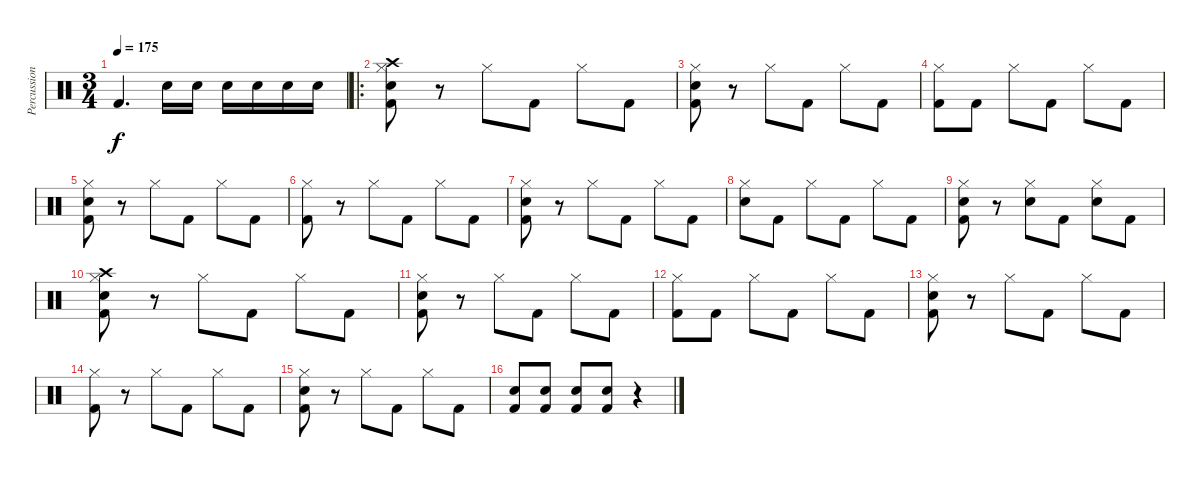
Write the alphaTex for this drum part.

\track ("Percussion" "Percussion") {instrument percussion}
\staff {score}
\articulation defaults
\ts (3 4)
\tempo 175
\clef neutral
\ks c "Kick (hit) 2".4{d dy f} "Electric Snare (hit)".16 "Electric Snare (hit)".16 "Electric Snare (hit)".16 "Electric Snare (hit)".16 "Electric Snare (hit)".16 "Electric Snare (hit)".16
|
\ro
("Hi-Hat (closed)" "Crash high (hit)" "Electric Snare (hit)" "Kick (hit) 2").8 r.8 "Hi-Hat (closed)".8 "Kick (hit) 2".8 "Hi-Hat (closed)".8 "Kick (hit) 2".8 |
("Hi-Hat (closed)" "Electric Snare (hit)" "Kick (hit) 2").8 r.8 "Hi-Hat (closed)".8 "Kick (hit) 2".8 "Hi-Hat (closed)".8 "Kick (hit) 2".8 |
("Hi-Hat (closed)" "Kick (hit) 2").8 "Kick (hit) 2".8 "Hi-Hat (closed)".8 "Kick (hit) 2".8 "Hi-Hat (closed)".8 "Kick (hit) 2".8 |
("Hi-Hat (closed)" "Electric Snare (hit)" "Kick (hit) 2").8 r.8 "Hi-Hat (closed)".8 "Kick (hit) 2".8 "Hi-Hat (closed)".8 "Kick (hit) 2".8 |
("Hi-Hat (closed)" "Kick (hit) 2").8 r.8 "Hi-Hat (closed)".8 "Kick (hit) 2".8 "Hi-Hat (closed)".8 "Kick (hit) 2".8 |
("Hi-Hat (closed)" "Electric Snare (hit)" "Kick (hit) 2").8 r.8 "Hi-Hat (closed)".8 "Kick (hit) 2".8 "Hi-Hat (closed)".8 "Kick (hit) 2".8 |
("Hi-Hat (closed)" "Electric Snare (hit)").8 "Kick (hit) 2".8 "Hi-Hat (closed)".8 "Kick (hit) 2".8 "Hi-Hat (closed)".8 "Kick (hit) 2".8 |
("Hi-Hat (closed)" "Electric Snare (hit)" "Kick (hit) 2").8 r.8 ("Hi-Hat (closed)" "Electric Snare (hit)").8 "Kick (hit) 2".8 ("Hi-Hat (closed)" "Electric Snare (hit)").8 "Kick (hit) 2".8 |
("Hi-Hat (closed)" "Crash high (hit)" "Electric Snare (hit)" "Kick (hit) 2").8 r.8 "Hi-Hat (closed)".8 "Kick (hit) 2".8 "Hi-Hat (closed)".8 "Kick (hit) 2".8 |
("Hi-Hat (closed)" "Electric Snare (hit)" "Kick (hit) 2").8 r.8 "Hi-Hat (closed)".8 "Kick (hit) 2".8 "Hi-Hat (closed)".8 "Kick (hit) 2".8 |
("Hi-Hat (closed)" "Kick (hit) 2").8 "Kick (hit) 2".8 "Hi-Hat (closed)".8 "Kick (hit) 2".8 "Hi-Hat (closed)".8 "Kick (hit) 2".8 |
("Hi-Hat (closed)" "Electric Snare (hit)" "Kick (hit) 2").8 r.8 "Hi-Hat (closed)".8 "Kick (hit) 2".8 "Hi-Hat (closed)".8 "Kick (hit) 2".8 |
("Hi-Hat (closed)" "Kick (hit) 2").8 r.8 "Hi-Hat (closed)".8 "Kick (hit) 2".8 "Hi-Hat (closed)".8 "Kick (hit) 2".8 |
("Hi-Hat (closed)" "Electric Snare (hit)" "Kick (hit) 2").8 r.8 "Hi-Hat (closed)".8 "Kick (hit) 2".8 "Hi-Hat (closed)".8 "Kick (hit) 2".8 |
("Electric Snare (hit)" "Kick (hit) 2").8 ("Electric Snare (hit)" "Kick (hit) 2").8 ("Electric Snare (hit)" "Kick (hit) 2").8 ("Electric Snare (hit)" "Kick (hit) 2").8 r.4
